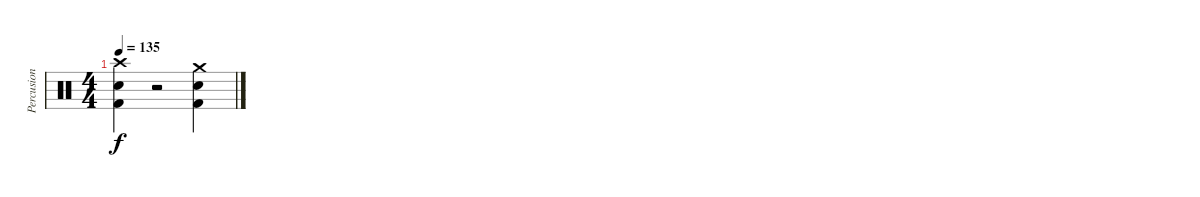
\track ("Percusion" "Percusion") {instrument percussion}
\staff {score}
\articulation defaults
\ts (4 4)
\tempo 135
\clef neutral
\ks c
("Crash high (hit)" "Snare (hit) 2" "Kick (hit) 2").4{dy f} r.2 ("Crash medium (hit)" "Snare (hit) 2" "Kick (hit) 2").4
